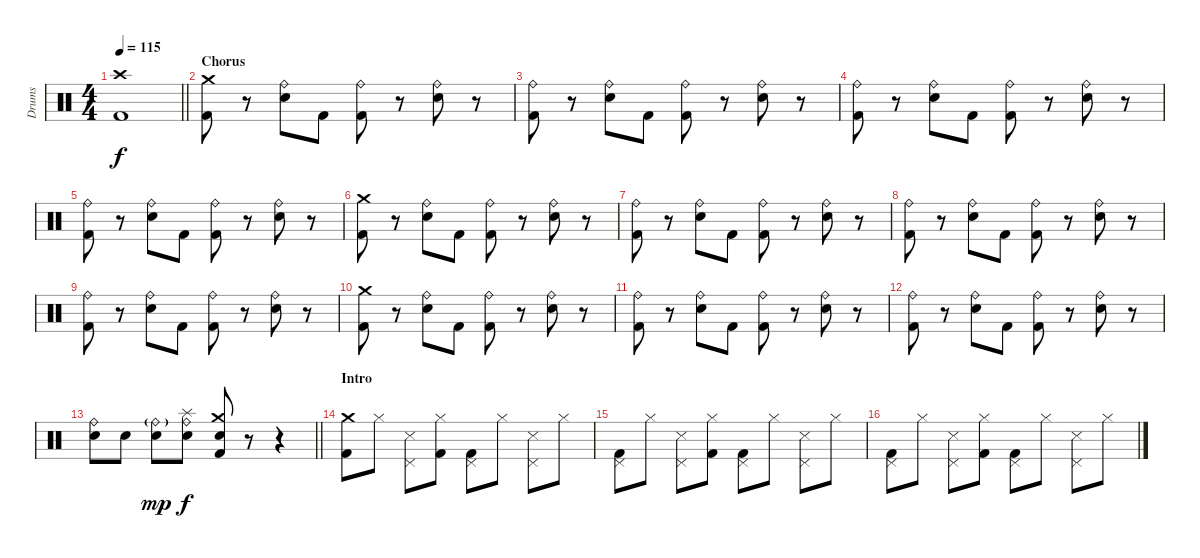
\track ("Drums" "Drums") {instrument percussion}
\staff {score}
\articulation defaults
\ts (4 4)
\tempo 115
\clef neutral
\barLineRight lightlight
\ks c
("Crash high (hit)" "Kick (hit) 2").1{dy f} |
\section ("" "Chorus")
("Crash medium (hit)" "Kick (hit) 2").8 r.8 ("Ride (bell)" "Electric Snare (hit)").8 "Kick (hit) 2".8 ("Ride (bell)" "Kick (hit) 2").8 r.8 ("Ride (bell)" "Electric Snare (hit)").8 r.8 |
("Ride (bell)" "Kick (hit) 2").8 r.8 ("Ride (bell)" "Electric Snare (hit)").8 "Kick (hit) 2".8 ("Ride (bell)" "Kick (hit) 2").8 r.8 ("Ride (bell)" "Electric Snare (hit)").8 r.8 |
("Ride (bell)" "Kick (hit) 2").8 r.8 ("Ride (bell)" "Electric Snare (hit)").8 "Kick (hit) 2".8 ("Ride (bell)" "Kick (hit) 2").8 r.8 ("Ride (bell)" "Electric Snare (hit)").8 r.8 |
("Ride (bell)" "Kick (hit) 2").8 r.8 ("Ride (bell)" "Electric Snare (hit)").8 "Kick (hit) 2".8 ("Ride (bell)" "Kick (hit) 2").8 r.8 ("Ride (bell)" "Electric Snare (hit)").8 r.8 |
("Crash medium (hit)" "Kick (hit) 2").8 r.8 ("Ride (bell)" "Electric Snare (hit)").8 "Kick (hit) 2".8 ("Ride (bell)" "Kick (hit) 2").8 r.8 ("Ride (bell)" "Electric Snare (hit)").8 r.8 |
("Ride (bell)" "Kick (hit) 2").8 r.8 ("Ride (bell)" "Electric Snare (hit)").8 "Kick (hit) 2".8 ("Ride (bell)" "Kick (hit) 2").8 r.8 ("Ride (bell)" "Electric Snare (hit)").8 r.8 |
("Ride (bell)" "Kick (hit) 2").8 r.8 ("Ride (bell)" "Electric Snare (hit)").8 "Kick (hit) 2".8 ("Ride (bell)" "Kick (hit) 2").8 r.8 ("Ride (bell)" "Electric Snare (hit)").8 r.8 |
("Ride (bell)" "Kick (hit) 2").8 r.8 ("Ride (bell)" "Electric Snare (hit)").8 "Kick (hit) 2".8 ("Ride (bell)" "Kick (hit) 2").8 r.8 ("Ride (bell)" "Electric Snare (hit)").8 r.8 |
("Crash medium (hit)" "Kick (hit) 2").8 r.8 ("Ride (bell)" "Electric Snare (hit)").8 "Kick (hit) 2".8 ("Ride (bell)" "Kick (hit) 2").8 r.8 ("Ride (bell)" "Electric Snare (hit)").8 r.8 |
("Ride (bell)" "Kick (hit) 2").8 r.8 ("Ride (bell)" "Electric Snare (hit)").8 "Kick (hit) 2".8 ("Ride (bell)" "Kick (hit) 2").8 r.8 ("Ride (bell)" "Electric Snare (hit)").8 r.8 |
("Ride (bell)" "Kick (hit) 2").8 r.8 ("Ride (bell)" "Electric Snare (hit)").8 "Kick (hit) 2".8 ("Ride (bell)" "Kick (hit) 2").8 r.8 ("Ride (bell)" "Electric Snare (hit)").8 r.8 |
\barLineRight lightlight
("Ride (bell)" "Electric Snare (hit)").8 "Electric Snare (hit)".8 ("Ride (bell)"{g} "Electric Snare (hit)").8{dy mp} ("Ride (bell)" "Electric Snare (hit)" "Splash (hit)").8{dy f} ("Crash medium (hit)" "Kick (hit) 2" "Electric Snare (hit)").8 r.8 r.4 |
\section ("" "Intro")
("Crash medium (hit)" "Kick (hit) 2").8 "Hi-Hat (closed)".8 ("Pedal Hi-Hat (hit)" "Snare (side stick) 3").8 ("Hi-Hat (closed)" "Kick (hit) 2").8 ("Pedal Hi-Hat (hit)" "Kick (hit) 2").8 "Hi-Hat (closed)".8 ("Pedal Hi-Hat (hit)" "Snare (side stick) 3").8 "Hi-Hat (closed)".8 |
("Pedal Hi-Hat (hit)" "Kick (hit) 2").8 "Hi-Hat (closed)".8 ("Pedal Hi-Hat (hit)" "Snare (side stick) 3").8 ("Hi-Hat (closed)" "Kick (hit) 2").8 ("Pedal Hi-Hat (hit)" "Kick (hit) 2").8 "Hi-Hat (closed)".8 ("Pedal Hi-Hat (hit)" "Snare (side stick) 3").8 "Hi-Hat (closed)".8 |
("Pedal Hi-Hat (hit)" "Kick (hit) 2").8 "Hi-Hat (closed)".8 ("Pedal Hi-Hat (hit)" "Snare (side stick) 3").8 ("Hi-Hat (closed)" "Kick (hit) 2").8 ("Pedal Hi-Hat (hit)" "Kick (hit) 2").8 "Hi-Hat (closed)".8 ("Pedal Hi-Hat (hit)" "Snare (side stick) 3").8 "Hi-Hat (closed)".8
